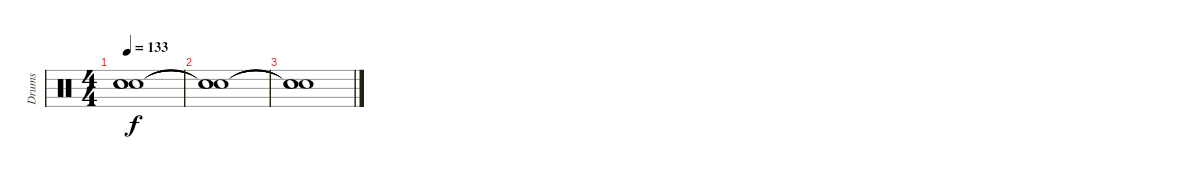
\track ("Drums" "Drums") {instrument percussion}
\staff {score}
\articulation defaults
\ts (4 4)
\tempo 133
\clef neutral
\ks c
("Snare (hit)"{t} "Snare (hit)"{t} "Snare (hit)"{t}).1{dy f} |
("Snare (hit)"{t} "Snare (hit)"{t} "Snare (hit)"{t}).1 |
("Snare (hit)"{t} "Snare (hit)"{t} "Snare (hit)"{t}).1
